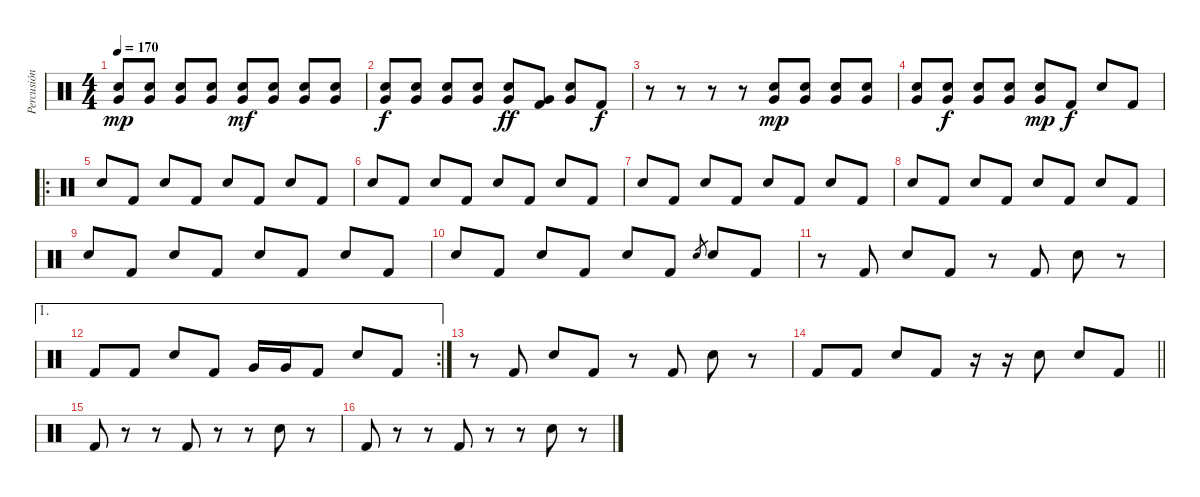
\track ("Percusión" "Percusión") {instrument percussion}
\staff {score}
\articulation defaults
\ts (4 4)
\tempo 170
\clef neutral
\ks c
("Electric Snare (hit)" "Very Low Tom (hit)").8{dy mp} ("Electric Snare (hit)" "Very Low Tom (hit)").8 ("Electric Snare (hit)" "Very Low Tom (hit)").8 ("Electric Snare (hit)" "Very Low Tom (hit)").8 ("Electric Snare (hit)" "Very Low Tom (hit)").8{dy mf} ("Electric Snare (hit)" "Very Low Tom (hit)").8 ("Electric Snare (hit)" "Very Low Tom (hit)").8 ("Electric Snare (hit)" "Very Low Tom (hit)").8 |
("Electric Snare (hit)" "Very Low Tom (hit)").8{dy f} ("Electric Snare (hit)" "Very Low Tom (hit)").8 ("Electric Snare (hit)" "Very Low Tom (hit)").8 ("Electric Snare (hit)" "Very Low Tom (hit)").8 ("Electric Snare (hit)" "Very Low Tom (hit)").8{dy ff} ("Very Low Tom (hit)" "Kick (hit) 2").8 ("Electric Snare (hit)" "Very Low Tom (hit)").8 "Kick (hit) 2".8{dy f} |
r.8 r.8 r.8 r.8 ("Electric Snare (hit)" "Very Low Tom (hit)").8{dy mp} ("Electric Snare (hit)" "Very Low Tom (hit)").8 ("Electric Snare (hit)" "Very Low Tom (hit)").8 ("Electric Snare (hit)" "Very Low Tom (hit)").8 |
("Electric Snare (hit)" "Very Low Tom (hit)").8 ("Electric Snare (hit)" "Very Low Tom (hit)").8{dy f} ("Electric Snare (hit)" "Very Low Tom (hit)").8 ("Electric Snare (hit)" "Very Low Tom (hit)").8 ("Electric Snare (hit)" "Very Low Tom (hit)").8{dy mp} "Kick (hit) 2".8{dy f} "Electric Snare (hit)".8 "Kick (hit) 2".8 |
\ro "Electric Snare (hit)".8 "Kick (hit) 2".8 "Electric Snare (hit)".8 "Kick (hit) 2".8 "Electric Snare (hit)".8 "Kick (hit) 2".8 "Electric Snare (hit)".8 "Kick (hit) 2".8
|
"Electric Snare (hit)".8 "Kick (hit) 2".8 "Electric Snare (hit)".8 "Kick (hit) 2".8 "Electric Snare (hit)".8 "Kick (hit) 2".8 "Electric Snare (hit)".8 "Kick (hit) 2".8 |
"Electric Snare (hit)".8 "Kick (hit) 2".8 "Electric Snare (hit)".8 "Kick (hit) 2".8 "Electric Snare (hit)".8 "Kick (hit) 2".8 "Electric Snare (hit)".8 "Kick (hit) 2".8 |
"Electric Snare (hit)".8 "Kick (hit) 2".8 "Electric Snare (hit)".8 "Kick (hit) 2".8 "Electric Snare (hit)".8 "Kick (hit) 2".8 "Electric Snare (hit)".8 "Kick (hit) 2".8 |
"Electric Snare (hit)".8 "Kick (hit) 2".8 "Electric Snare (hit)".8 "Kick (hit) 2".8 "Electric Snare (hit)".8 "Kick (hit) 2".8 "Electric Snare (hit)".8 "Kick (hit) 2".8 |
"Electric Snare (hit)".8 "Kick (hit) 2".8 "Electric Snare (hit)".8 "Kick (hit) 2".8 "Electric Snare (hit)".8 "Kick (hit) 2".8 "Electric Snare (hit)".8{gr} "Electric Snare (hit)".8 "Kick (hit) 2".8 |
r.8 "Kick (hit) 2".8 "Electric Snare (hit)".8 "Kick (hit) 2".8 r.8 "Kick (hit) 2".8 "Electric Snare (hit)".8 r.8 |
\ae 1
\rc 2 "Kick (hit) 2".8 "Kick (hit) 2".8 "Electric Snare (hit)".8 "Kick (hit) 2".8 "Very Low Tom (hit)".16 "Very Low Tom (hit)".16 "Kick (hit) 2".8 "Electric Snare (hit)".8 "Kick (hit) 2".8
|
r.8 "Kick (hit) 2".8 "Electric Snare (hit)".8 "Kick (hit) 2".8 r.8 "Kick (hit) 2".8 "Electric Snare (hit)".8 r.8 |
\barLineRight lightlight "Kick (hit) 2".8 "Kick (hit) 2".8 "Electric Snare (hit)".8 "Kick (hit) 2".8
r.16 r.16 "Electric Snare (hit)".8 "Electric Snare (hit)".8 "Kick (hit) 2".8 |
"Kick (hit) 2".8 r.8 r.8 "Kick (hit) 2".8 r.8 r.8 "Electric Snare (hit)".8 r.8 |
"Kick (hit) 2".8 r.8 r.8 "Kick (hit) 2".8 r.8 r.8 "Electric Snare (hit)".8 r.8
